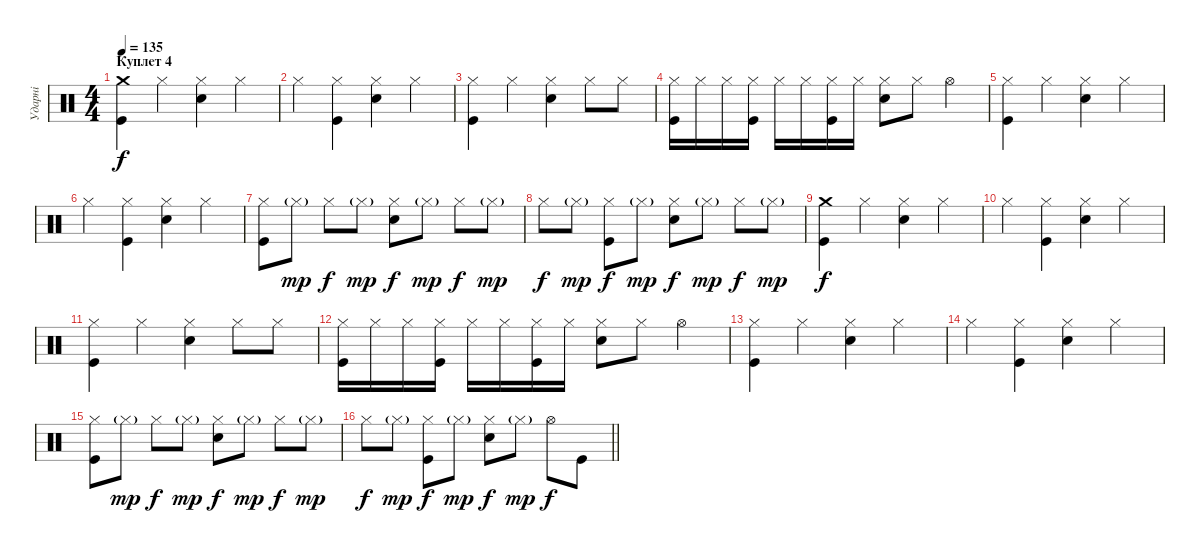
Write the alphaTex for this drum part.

\track ("Ударні" "Ударні") {instrument percussion}
\staff {score}
\articulation defaults
\ts (4 4)
\section ("" "Куплет 4")
\tempo 135
\clef neutral
\ks c
("Crash medium (hit)" "Kick (hit)").4{dy f} "Hi-Hat (closed)".4 ("Snare (hit) 2" "Hi-Hat (closed)").4 "Hi-Hat (closed)".4 |
"Hi-Hat (closed)".4 ("Hi-Hat (closed)" "Kick (hit)").4 ("Snare (hit) 2" "Hi-Hat (closed)").4 "Hi-Hat (closed)".4 |
("Hi-Hat (closed)" "Kick (hit)").4 "Hi-Hat (closed)".4 ("Snare (hit) 2" "Hi-Hat (closed)").4 "Hi-Hat (closed)".8 "Hi-Hat (closed)".8 |
("Hi-Hat (closed)" "Kick (hit)").16 "Hi-Hat (closed)".16 "Hi-Hat (closed)".16 ("Hi-Hat (closed)" "Kick (hit)").16 "Hi-Hat (closed)".16 "Hi-Hat (closed)".16 ("Hi-Hat (closed)" "Kick (hit)").16 "Hi-Hat (closed)".16 ("Snare (hit) 2" "Hi-Hat (closed)").8 "Hi-Hat (closed)".8 "Hi-Hat (open)".4 |
("Hi-Hat (closed)" "Kick (hit)").4 "Hi-Hat (closed)".4 ("Snare (hit) 2" "Hi-Hat (closed)").4 "Hi-Hat (closed)".4 |
"Hi-Hat (closed)".4 ("Hi-Hat (closed)" "Kick (hit)").4 ("Snare (hit) 2" "Hi-Hat (closed)").4 "Hi-Hat (closed)".4 |
("Hi-Hat (closed)" "Kick (hit)").8 "Hi-Hat (closed)"{g}.8{dy mp} "Hi-Hat (closed)".8{dy f} "Hi-Hat (closed)"{g}.8{dy mp} ("Snare (hit) 2" "Hi-Hat (closed)").8{dy f} "Hi-Hat (closed)"{g}.8{dy mp} "Hi-Hat (closed)".8{dy f} "Hi-Hat (closed)"{g}.8{dy mp} |
"Hi-Hat (closed)".8{dy f} "Hi-Hat (closed)"{g}.8{dy mp} ("Hi-Hat (closed)" "Kick (hit)").8{dy f} "Hi-Hat (closed)"{g}.8{dy mp} ("Snare (hit) 2" "Hi-Hat (closed)").8{dy f} "Hi-Hat (closed)"{g}.8{dy mp} "Hi-Hat (closed)".8{dy f} "Hi-Hat (closed)"{g}.8{dy mp} |
("Crash medium (hit)" "Kick (hit)").4{dy f} "Hi-Hat (closed)".4 ("Snare (hit) 2" "Hi-Hat (closed)").4 "Hi-Hat (closed)".4 |
"Hi-Hat (closed)".4 ("Hi-Hat (closed)" "Kick (hit)").4 ("Snare (hit) 2" "Hi-Hat (closed)").4 "Hi-Hat (closed)".4 |
("Hi-Hat (closed)" "Kick (hit)").4 "Hi-Hat (closed)".4 ("Snare (hit) 2" "Hi-Hat (closed)").4 "Hi-Hat (closed)".8 "Hi-Hat (closed)".8 |
("Hi-Hat (closed)" "Kick (hit)").16 "Hi-Hat (closed)".16 "Hi-Hat (closed)".16 ("Hi-Hat (closed)" "Kick (hit)").16 "Hi-Hat (closed)".16 "Hi-Hat (closed)".16 ("Hi-Hat (closed)" "Kick (hit)").16 "Hi-Hat (closed)".16 ("Snare (hit) 2" "Hi-Hat (closed)").8 "Hi-Hat (closed)".8 "Hi-Hat (open)".4 |
("Hi-Hat (closed)" "Kick (hit)").4 "Hi-Hat (closed)".4 ("Snare (hit) 2" "Hi-Hat (closed)").4 "Hi-Hat (closed)".4 |
"Hi-Hat (closed)".4 ("Hi-Hat (closed)" "Kick (hit)").4 ("Snare (hit) 2" "Hi-Hat (closed)").4 "Hi-Hat (closed)".4 |
("Hi-Hat (closed)" "Kick (hit)").8 "Hi-Hat (closed)"{g}.8{dy mp} "Hi-Hat (closed)".8{dy f} "Hi-Hat (closed)"{g}.8{dy mp} ("Snare (hit) 2" "Hi-Hat (closed)").8{dy f} "Hi-Hat (closed)"{g}.8{dy mp} "Hi-Hat (closed)".8{dy f} "Hi-Hat (closed)"{g}.8{dy mp} |
\barLineRight lightlight "Hi-Hat (closed)".8{dy f} "Hi-Hat (closed)"{g}.8{dy mp}
("Hi-Hat (closed)" "Kick (hit)").8{dy f} "Hi-Hat (closed)"{g}.8{dy mp} ("Snare (hit) 2" "Hi-Hat (closed)").8{dy f} "Hi-Hat (closed)"{g}.8{dy mp} "Hi-Hat (open)".8{dy f} "Kick (hit)".8
